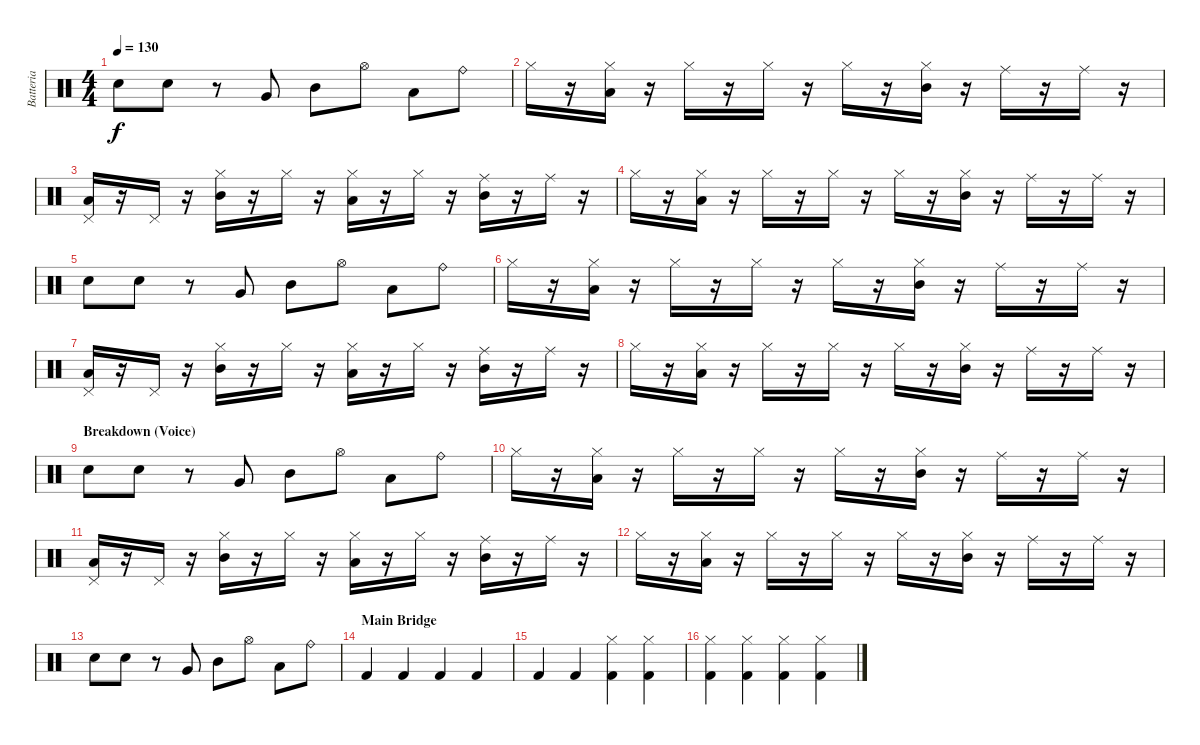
\track ("Batteria" "Batteria") {instrument percussion}
\staff {score}
\articulation defaults
\ts (4 4)
\tempo 130
\clef neutral
\ks c "Electric Snare (hit)".8{dy f} "Electric Snare (hit)".8
r.8 "Very Low Tom (hit)".8 "Mid Tom (hit)".8 "Hi-Hat (open)".8 "Low Tom (hit)".8 "Ride (bell)".8 |
"Hi-Hat (closed)".16 r.16 ("Hi-Hat (closed)" "Low Tom (hit)").16 r.16 "Hi-Hat (closed)".16 r.16 "Hi-Hat (closed)".16 r.16 "Hi-Hat (closed)".16 r.16 ("Hi-Hat (closed)" "Mid Tom (hit)").16 r.16 "Ride (middle)".16 r.16 "Ride (middle)".16 r.16 |
("Pedal Hi-Hat (hit)" "Low Tom (hit)").16 r.16 "Pedal Hi-Hat (hit)".16 r.16 ("Hi-Hat (closed)" "Mid Tom (hit)").16 r.16 "Hi-Hat (closed)".16 r.16 ("Hi-Hat (closed)" "Low Tom (hit)").16 r.16 "Hi-Hat (closed)".16 r.16 ("Ride (middle)" "Mid Tom (hit)").16 r.16 "Ride (middle)".16 r.16 |
"Hi-Hat (closed)".16 r.16 ("Hi-Hat (closed)" "Low Tom (hit)").16 r.16 "Hi-Hat (closed)".16 r.16 "Hi-Hat (closed)".16 r.16 "Hi-Hat (closed)".16 r.16 ("Hi-Hat (closed)" "Mid Tom (hit)").16 r.16 "Ride (middle)".16 r.16 "Ride (middle)".16 r.16 |
"Electric Snare (hit)".8 "Electric Snare (hit)".8 r.8 "Very Low Tom (hit)".8 "Mid Tom (hit)".8 "Hi-Hat (open)".8 "Low Tom (hit)".8 "Ride (bell)".8 |
"Hi-Hat (closed)".16 r.16 ("Hi-Hat (closed)" "Low Tom (hit)").16 r.16 "Hi-Hat (closed)".16 r.16 "Hi-Hat (closed)".16 r.16 "Hi-Hat (closed)".16 r.16 ("Hi-Hat (closed)" "Mid Tom (hit)").16 r.16 "Ride (middle)".16 r.16 "Ride (middle)".16 r.16 |
("Pedal Hi-Hat (hit)" "Low Tom (hit)").16 r.16 "Pedal Hi-Hat (hit)".16 r.16 ("Hi-Hat (closed)" "Mid Tom (hit)").16 r.16 "Hi-Hat (closed)".16 r.16 ("Hi-Hat (closed)" "Low Tom (hit)").16 r.16 "Hi-Hat (closed)".16 r.16 ("Ride (middle)" "Mid Tom (hit)").16 r.16 "Ride (middle)".16 r.16 |
"Hi-Hat (closed)".16 r.16 ("Hi-Hat (closed)" "Low Tom (hit)").16 r.16 "Hi-Hat (closed)".16 r.16 "Hi-Hat (closed)".16 r.16 "Hi-Hat (closed)".16 r.16 ("Hi-Hat (closed)" "Mid Tom (hit)").16 r.16 "Ride (middle)".16 r.16 "Ride (middle)".16 r.16 |
\section ("" "Breakdown (Voice)")
"Electric Snare (hit)".8 "Electric Snare (hit)".8 r.8 "Very Low Tom (hit)".8 "Mid Tom (hit)".8 "Hi-Hat (open)".8 "Low Tom (hit)".8 "Ride (bell)".8 |
"Hi-Hat (closed)".16 r.16 ("Hi-Hat (closed)" "Low Tom (hit)").16 r.16 "Hi-Hat (closed)".16 r.16 "Hi-Hat (closed)".16 r.16 "Hi-Hat (closed)".16 r.16 ("Hi-Hat (closed)" "Mid Tom (hit)").16 r.16 "Ride (middle)".16 r.16 "Ride (middle)".16 r.16 |
("Pedal Hi-Hat (hit)" "Low Tom (hit)").16 r.16 "Pedal Hi-Hat (hit)".16 r.16 ("Hi-Hat (closed)" "Mid Tom (hit)").16 r.16 "Hi-Hat (closed)".16 r.16 ("Hi-Hat (closed)" "Low Tom (hit)").16 r.16 "Hi-Hat (closed)".16 r.16 ("Ride (middle)" "Mid Tom (hit)").16 r.16 "Ride (middle)".16 r.16 |
"Hi-Hat (closed)".16 r.16 ("Hi-Hat (closed)" "Low Tom (hit)").16 r.16 "Hi-Hat (closed)".16 r.16 "Hi-Hat (closed)".16 r.16 "Hi-Hat (closed)".16 r.16 ("Hi-Hat (closed)" "Mid Tom (hit)").16 r.16 "Ride (middle)".16 r.16 "Ride (middle)".16 r.16 |
"Electric Snare (hit)".8 "Electric Snare (hit)".8 r.8 "Very Low Tom (hit)".8 "Mid Tom (hit)".8 "Hi-Hat (open)".8 "Low Tom (hit)".8 "Ride (bell)".8 |
\section ("" "Main Bridge")
"Kick (hit) 2".4 "Kick (hit) 2".4 "Kick (hit) 2".4 "Kick (hit) 2".4 |
"Kick (hit) 2".4 "Kick (hit) 2".4 ("Hi-Hat (closed)" "Kick (hit) 2").4 ("Hi-Hat (closed)" "Kick (hit) 2").4 |
("Hi-Hat (closed)" "Kick (hit) 2").4 ("Hi-Hat (closed)" "Kick (hit) 2").4 ("Hi-Hat (closed)" "Kick (hit) 2").4 ("Hi-Hat (closed)" "Kick (hit) 2").4
